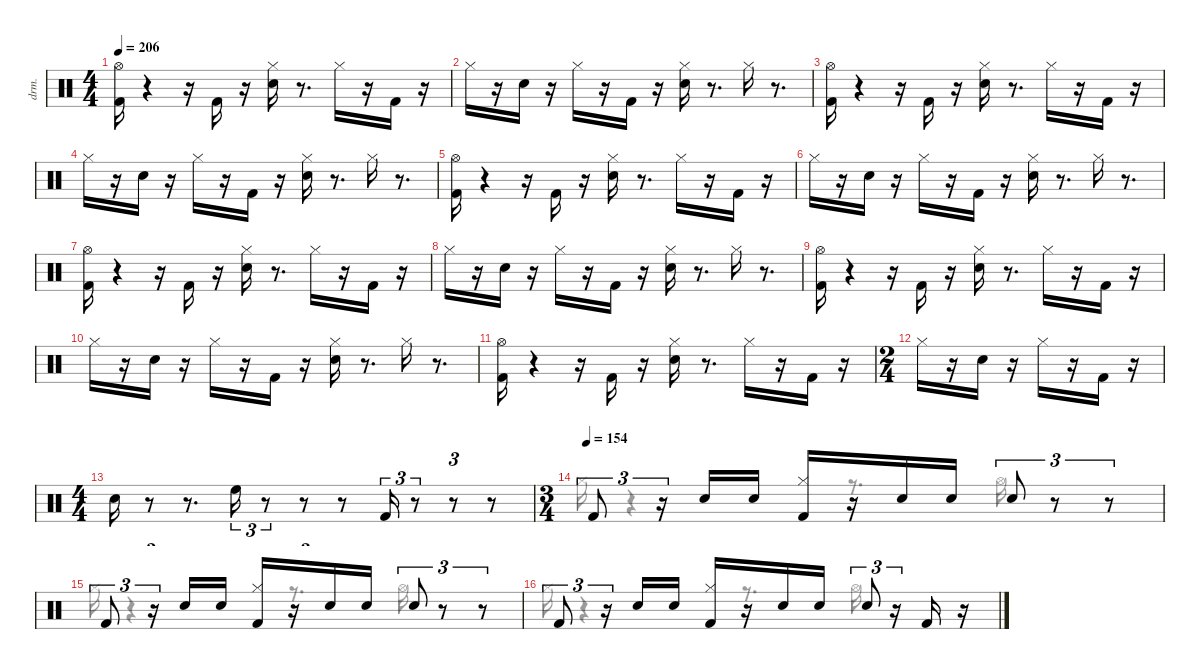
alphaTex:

\defaultSystemsLayout 4
\hideDynamics
\bracketExtendMode nobrackets
\otherSystemsTrackNameOrientation horizontal
\track ("EZdrummer 3" "drm.") {instrument percussion}
\staff {score}
\articulation defaults
\voice
\ts (4 4)
\tempo 206
\clef neutral
\ks aminor
("Kick (hit) 2" "Hi-Hat (open)"{acc #}).16{dy ff beam Down} r.4{beam Down} r.16{beam Down} "Kick (hit) 2".16{beam Up} r.16{beam Up} ("Snare (hit) 2" "Hi-Hat (closed)"{acc #}).16{beam Down} r.8{d beam Down} "Hi-Hat (closed)"{acc #}.16{dy p beam Down} r.16{beam Down} "Kick (hit) 2".16{dy ff beam Up} r.16{beam Up} |
"Hi-Hat (closed)"{acc #}.16{dy fff beam Down} r.16{beam Down} "Snare (hit) 2".16{dy ff beam Down} r.16{beam Down} "Hi-Hat (closed)"{acc #}.16{dy mp beam Down} r.16{beam Down} "Kick (hit) 2".16{dy ff beam Up} r.16{beam Up} ("Snare (hit) 2" "Hi-Hat (closed)"{acc #}).16{beam Down} r.8{d beam Down} "Hi-Hat (closed)"{acc #}.16{dy pp beam Down} r.8{d beam Down} |
("Kick (hit) 2" "Hi-Hat (open)"{acc #}).16{dy ff beam Down} r.4{beam Down} r.16{beam Down} "Kick (hit) 2".16{beam Up} r.16{beam Up} ("Snare (hit) 2" "Hi-Hat (closed)"{acc #}).16{beam Down} r.8{d beam Down} "Hi-Hat (closed)"{acc #}.16{dy p beam Down} r.16{beam Down} "Kick (hit) 2".16{dy ff beam Up} r.16{beam Up} |
"Hi-Hat (closed)"{acc #}.16{dy fff beam Down} r.16{beam Down} "Snare (hit) 2".16{dy ff beam Down} r.16{beam Down} "Hi-Hat (closed)"{acc #}.16{dy mp beam Down} r.16{beam Down} "Kick (hit) 2".16{dy ff beam Up} r.16{beam Up} ("Snare (hit) 2" "Hi-Hat (closed)"{acc #}).16{beam Down} r.8{d beam Down} "Hi-Hat (closed)"{acc #}.16{dy pp beam Down} r.8{d beam Down} |
("Kick (hit) 2" "Hi-Hat (open)"{acc #}).16{dy ff beam Down} r.4{beam Down} r.16{beam Down} "Kick (hit) 2".16{beam Up} r.16{beam Up} ("Snare (hit) 2" "Hi-Hat (closed)"{acc #}).16{beam Down} r.8{d beam Down} "Hi-Hat (closed)"{acc #}.16{dy p beam Down} r.16{beam Down} "Kick (hit) 2".16{dy ff beam Up} r.16{beam Up} |
"Hi-Hat (closed)"{acc #}.16{dy fff beam Down} r.16{beam Down} "Snare (hit) 2".16{dy ff beam Down} r.16{beam Down} "Hi-Hat (closed)"{acc #}.16{dy mp beam Down} r.16{beam Down} "Kick (hit) 2".16{dy ff beam Up} r.16{beam Up} ("Snare (hit) 2" "Hi-Hat (closed)"{acc #}).16{beam Down} r.8{d beam Down} "Hi-Hat (closed)"{acc #}.16{dy pp beam Down} r.8{d beam Down} |
("Kick (hit) 2" "Hi-Hat (open)"{acc #}).16{dy ff beam Down} r.4{beam Down} r.16{beam Down} "Kick (hit) 2".16{beam Up} r.16{beam Up} ("Snare (hit) 2" "Hi-Hat (closed)"{acc #}).16{beam Down} r.8{d beam Down} "Hi-Hat (closed)"{acc #}.16{dy p beam Down} r.16{beam Down} "Kick (hit) 2".16{dy ff beam Up} r.16{beam Up} |
"Hi-Hat (closed)"{acc #}.16{dy fff beam Down} r.16{beam Down} "Snare (hit) 2".16{dy ff beam Down} r.16{beam Down} "Hi-Hat (closed)"{acc #}.16{dy mp beam Down} r.16{beam Down} "Kick (hit) 2".16{dy ff beam Up} r.16{beam Up} ("Snare (hit) 2" "Hi-Hat (closed)"{acc #}).16{beam Down} r.8{d beam Down} "Hi-Hat (closed)"{acc #}.16{dy pp beam Down} r.8{d beam Down} |
("Kick (hit) 2" "Hi-Hat (open)"{acc #}).16{dy ff beam Down} r.4{beam Down} r.16{beam Down} "Kick (hit) 2".16{beam Up} r.16{beam Up} ("Snare (hit) 2" "Hi-Hat (closed)"{acc #}).16{beam Down} r.8{d beam Down} "Hi-Hat (closed)"{acc #}.16{dy p beam Down} r.16{beam Down} "Kick (hit) 2".16{dy ff beam Up} r.16{beam Up} |
"Hi-Hat (closed)"{acc #}.16{dy fff beam Down} r.16{beam Down} "Snare (hit) 2".16{dy ff beam Down} r.16{beam Down} "Hi-Hat (closed)"{acc #}.16{dy mp beam Down} r.16{beam Down} "Kick (hit) 2".16{dy ff beam Up} r.16{beam Up} ("Snare (hit) 2" "Hi-Hat (closed)"{acc #}).16{beam Down} r.8{d beam Down} "Hi-Hat (closed)"{acc #}.16{dy pp beam Down} r.8{d beam Down} |
("Kick (hit) 2" "Hi-Hat (open)"{acc #}).16{dy ff beam Down} r.4{beam Down} r.16{beam Down} "Kick (hit) 2".16{beam Up} r.16{beam Up} ("Snare (hit) 2" "Hi-Hat (closed)"{acc #}).16{beam Down} r.8{d beam Down} "Hi-Hat (closed)"{acc #}.16{dy p beam Down} r.16{beam Down} "Kick (hit) 2".16{dy ff beam Up} r.16{beam Up} |
\ts (2 4)
"Hi-Hat (closed)"{acc #}.16{dy fff beam Down} r.16{beam Down} "Snare (hit) 2".16{dy ff beam Down} r.16{beam Down} "Hi-Hat (closed)"{acc #}.16{dy mp beam Down} r.16{beam Down} "Kick (hit) 2".16{dy ff beam Up} r.16{beam Up} |
\ts (4 4)
"Snare (hit) 2".16{beam Down} r.8{tu (3 2) beam Down} r.8{d beam Down} "High Floor Tom (hit)".16{tu (3 2) beam Down} r.8{tu (3 2) beam Down} r.8{tu (3 2) beam Down} r.8{beam Down} "Kick (hit) 2".16{tu (3 2) beam Up} r.8{tu (3 2) beam Up} r.8{tu (3 2) beam Up} r.8{beam Up} |
\ts (3 4)
\tempo (154)
"Kick (hit) 2".8{tu (3 2) beam Up} r.16{tu (3 2) beam Up} "Snare (hit) 2".16{dy ppp beam Up} "Snare (hit) 2".16{beam Up} ("Kick (hit) 2" "Hi-Hat (closed)"{acc #}).16{dy f beam Up} r.16{beam Up} "Snare (hit) 2".16{dy ppp beam Up} "Snare (hit) 2".16{beam Up} "Snare (hit) 2".8{tu (3 2) dy ff beam Up} r.8{tu (3 2) beam Up} r.8{tu (3 2) beam Up} |
"Kick (hit) 2".8{tu (3 2) beam Up} r.16{tu (3 2) beam Up} "Snare (hit) 2".16{dy ppp beam Up} "Snare (hit) 2".16{beam Up} ("Kick (hit) 2" "Hi-Hat (closed)"{acc #}).16{dy f beam Up} r.16{beam Up} "Snare (hit) 2".16{dy ppp beam Up} "Snare (hit) 2".16{beam Up} "Snare (hit) 2".8{tu (3 2) dy ff beam Up} r.8{tu (3 2) beam Up} r.8{tu (3 2) beam Up} |
"Kick (hit) 2".8{tu (3 2) beam Up} r.16{tu (3 2) beam Up} "Snare (hit) 2".16{dy ppp beam Up} "Snare (hit) 2".16{beam Up} ("Kick (hit) 2" "Hi-Hat (closed)"{acc #}).16{dy f beam Up} r.16{beam Up} "Snare (hit) 2".16{dy ppp beam Up} "Snare (hit) 2".16{beam Up} "Snare (hit) 2".8{tu (3 2) dy ff beam Up} r.16{tu (3 2) beam Up} "Kick (hit) 2".16{dy pp beam Up} r.16{beam Up}
\voice
\clef neutral
\ottava regular
\simile none
\ks aminor
|
|
|
|
|
|
|
|
|
|
|
|
|
"Hi-Hat (closed)"{acc #}.16{beam Down} r.4{beam Down} r.8{d beam Down} "Hi-Hat (open)"{acc #}.16{beam Down} |
"Hi-Hat (closed)"{acc #}.16{beam Down} r.4{beam Down} r.8{d beam Down} "Hi-Hat (open)"{acc #}.16{beam Down} |
"Hi-Hat (closed)"{acc #}.16{beam Down} r.4{beam Down} r.8{d beam Down} "Hi-Hat (open)"{acc #}.16{beam Down}
